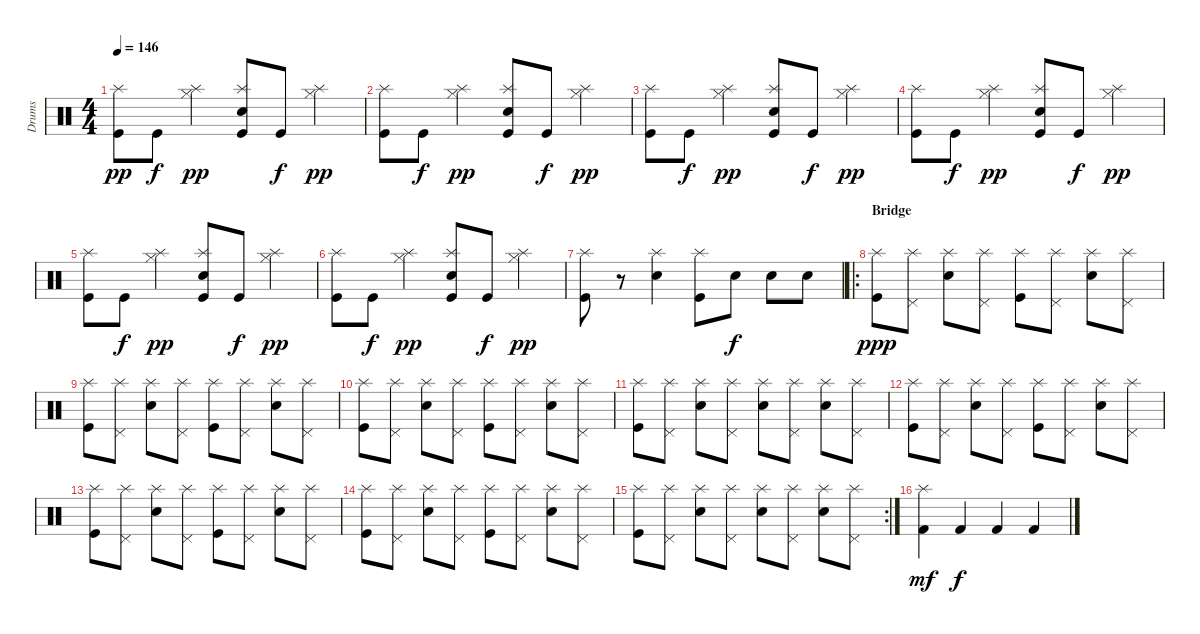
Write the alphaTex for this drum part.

\track ("Drums" "Drums") {instrument percussion}
\staff {score}
\articulation defaults
\ts (4 4)
\tempo 146
\clef neutral
\ks c
("Kick (hit)" "Splash (hit)").8{dy pp} "Kick (hit)".8{dy f} ("Hi-Hat (closed)" "Splash (hit)").4{dy pp} ("Kick (hit)" "Electric Snare (hit)" "Splash (hit)").8 "Kick (hit)".8{dy f} ("Hi-Hat (closed)" "Splash (hit)").4{dy pp} |
("Kick (hit)" "Splash (hit)").8 "Kick (hit)".8{dy f} ("Hi-Hat (closed)" "Splash (hit)").4{dy pp} ("Kick (hit)" "Electric Snare (hit)" "Splash (hit)").8 "Kick (hit)".8{dy f} ("Hi-Hat (closed)" "Splash (hit)").4{dy pp} |
("Kick (hit)" "Splash (hit)").8 "Kick (hit)".8{dy f} ("Hi-Hat (closed)" "Splash (hit)").4{dy pp} ("Kick (hit)" "Electric Snare (hit)" "Splash (hit)").8 "Kick (hit)".8{dy f} ("Hi-Hat (closed)" "Splash (hit)").4{dy pp} |
("Kick (hit)" "Splash (hit)").8 "Kick (hit)".8{dy f} ("Hi-Hat (closed)" "Splash (hit)").4{dy pp} ("Kick (hit)" "Electric Snare (hit)" "Splash (hit)").8 "Kick (hit)".8{dy f} ("Hi-Hat (closed)" "Splash (hit)").4{dy pp} |
("Kick (hit)" "Splash (hit)").8 "Kick (hit)".8{dy f} ("Hi-Hat (closed)" "Splash (hit)").4{dy pp} ("Kick (hit)" "Electric Snare (hit)" "Splash (hit)").8 "Kick (hit)".8{dy f} ("Hi-Hat (closed)" "Splash (hit)").4{dy pp} |
("Kick (hit)" "Splash (hit)").8 "Kick (hit)".8{dy f} ("Hi-Hat (closed)" "Splash (hit)").4{dy pp} ("Kick (hit)" "Electric Snare (hit)" "Splash (hit)").8 "Kick (hit)".8{dy f} ("Hi-Hat (closed)" "Splash (hit)").4{dy pp} |
("Kick (hit)" "Splash (hit)").8 r.8 ("Electric Snare (hit)" "Splash (hit)").4 ("Kick (hit)" "Splash (hit)").8 "Electric Snare (hit)".8{dy f} "Electric Snare (hit)".8 "Electric Snare (hit)".8 |
\ro
\section ("" "Bridge")
("Kick (hit)" "Splash (hit)").8{dy ppp} ("Pedal Hi-Hat (hit)" "Splash (hit)").8 ("Electric Snare (hit)" "Splash (hit)").8 ("Pedal Hi-Hat (hit)" "Splash (hit)").8 ("Kick (hit)" "Splash (hit)").8 ("Pedal Hi-Hat (hit)" "Splash (hit)").8 ("Electric Snare (hit)" "Splash (hit)").8 ("Pedal Hi-Hat (hit)" "Splash (hit)").8 |
("Kick (hit)" "Splash (hit)").8 ("Pedal Hi-Hat (hit)" "Splash (hit)").8 ("Electric Snare (hit)" "Splash (hit)").8 ("Pedal Hi-Hat (hit)" "Splash (hit)").8 ("Kick (hit)" "Splash (hit)").8 ("Pedal Hi-Hat (hit)" "Splash (hit)").8 ("Electric Snare (hit)" "Splash (hit)").8 ("Pedal Hi-Hat (hit)" "Splash (hit)").8 |
("Kick (hit)" "Splash (hit)").8 ("Pedal Hi-Hat (hit)" "Splash (hit)").8 ("Electric Snare (hit)" "Splash (hit)").8 ("Pedal Hi-Hat (hit)" "Splash (hit)").8 ("Kick (hit)" "Splash (hit)").8 ("Pedal Hi-Hat (hit)" "Splash (hit)").8 ("Electric Snare (hit)" "Splash (hit)").8 ("Pedal Hi-Hat (hit)" "Splash (hit)").8 |
("Kick (hit)" "Splash (hit)").8 ("Pedal Hi-Hat (hit)" "Splash (hit)").8 ("Electric Snare (hit)" "Splash (hit)").8 ("Pedal Hi-Hat (hit)" "Splash (hit)").8 ("Electric Snare (hit)" "Splash (hit)").8 ("Pedal Hi-Hat (hit)" "Splash (hit)").8 ("Electric Snare (hit)" "Splash (hit)").8 ("Pedal Hi-Hat (hit)" "Splash (hit)").8 |
("Kick (hit)" "Splash (hit)").8 ("Pedal Hi-Hat (hit)" "Splash (hit)").8 ("Electric Snare (hit)" "Splash (hit)").8 ("Pedal Hi-Hat (hit)" "Splash (hit)").8 ("Kick (hit)" "Splash (hit)").8 ("Pedal Hi-Hat (hit)" "Splash (hit)").8 ("Electric Snare (hit)" "Splash (hit)").8 ("Pedal Hi-Hat (hit)" "Splash (hit)").8 |
("Kick (hit)" "Splash (hit)").8 ("Pedal Hi-Hat (hit)" "Splash (hit)").8 ("Electric Snare (hit)" "Splash (hit)").8 ("Pedal Hi-Hat (hit)" "Splash (hit)").8 ("Kick (hit)" "Splash (hit)").8 ("Pedal Hi-Hat (hit)" "Splash (hit)").8 ("Electric Snare (hit)" "Splash (hit)").8 ("Pedal Hi-Hat (hit)" "Splash (hit)").8 |
("Kick (hit)" "Splash (hit)").8 ("Pedal Hi-Hat (hit)" "Splash (hit)").8 ("Electric Snare (hit)" "Splash (hit)").8 ("Pedal Hi-Hat (hit)" "Splash (hit)").8 ("Kick (hit)" "Splash (hit)").8 ("Pedal Hi-Hat (hit)" "Splash (hit)").8 ("Electric Snare (hit)" "Splash (hit)").8 ("Pedal Hi-Hat (hit)" "Splash (hit)").8 |
\rc 2
("Kick (hit)" "Splash (hit)").8 ("Pedal Hi-Hat (hit)" "Splash (hit)").8 ("Electric Snare (hit)" "Splash (hit)").8 ("Pedal Hi-Hat (hit)" "Splash (hit)").8 ("Electric Snare (hit)" "Splash (hit)").8 ("Pedal Hi-Hat (hit)" "Splash (hit)").8 ("Electric Snare (hit)" "Splash (hit)").8 ("Pedal Hi-Hat (hit)" "Splash (hit)").8 |
("Kick (hit) 2" "Splash (hit)").4{dy mf} "Kick (hit) 2".4{dy f} "Kick (hit) 2".4 "Kick (hit) 2".4
